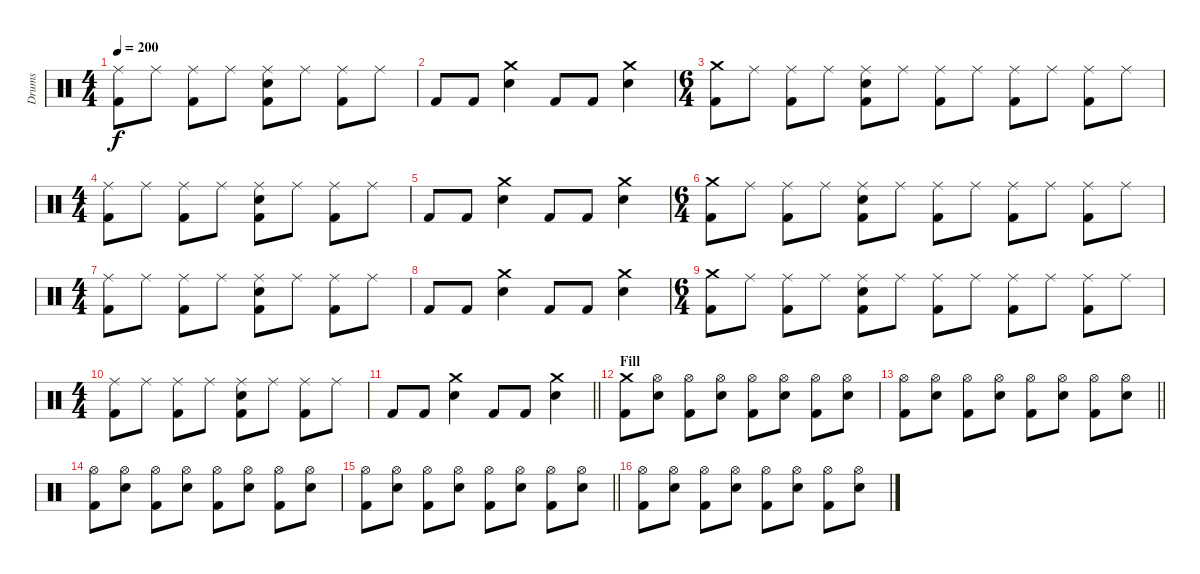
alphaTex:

\track ("Drums" "Drums") {instrument percussion}
\staff {score}
\articulation defaults
\ts (4 4)
\tempo 200
\clef neutral
\ks c
("Ride (middle)" "Kick (hit) 2").8{dy f} "Ride (middle)".8 ("Ride (middle)" "Kick (hit) 2").8 "Ride (middle)".8 ("Ride (middle)" "Electric Snare (hit)" "Kick (hit) 2").8 "Ride (middle)".8 ("Ride (middle)" "Kick (hit) 2").8 "Ride (middle)".8 |
"Kick (hit) 2".8 "Kick (hit) 2".8 ("Crash medium (hit)" "Electric Snare (hit)").4 "Kick (hit) 2".8 "Kick (hit) 2".8 ("Crash medium (hit)" "Electric Snare (hit)").4 |
\ts (6 4)
("Crash medium (hit)" "Kick (hit) 2").8 "Ride (middle)".8 ("Ride (middle)" "Kick (hit) 2").8 "Ride (middle)".8 ("Ride (middle)" "Electric Snare (hit)" "Kick (hit) 2").8 "Ride (middle)".8 ("Ride (middle)" "Kick (hit) 2").8 "Ride (middle)".8 ("Ride (middle)" "Kick (hit) 2").8 "Ride (middle)".8 ("Ride (middle)" "Kick (hit) 2").8 "Ride (middle)".8 |
\ts (4 4)
("Ride (middle)" "Kick (hit) 2").8 "Ride (middle)".8 ("Ride (middle)" "Kick (hit) 2").8 "Ride (middle)".8 ("Ride (middle)" "Electric Snare (hit)" "Kick (hit) 2").8 "Ride (middle)".8 ("Ride (middle)" "Kick (hit) 2").8 "Ride (middle)".8 |
"Kick (hit) 2".8 "Kick (hit) 2".8 ("Crash medium (hit)" "Electric Snare (hit)").4 "Kick (hit) 2".8 "Kick (hit) 2".8 ("Crash medium (hit)" "Electric Snare (hit)").4 |
\ts (6 4)
("Crash medium (hit)" "Kick (hit) 2").8 "Ride (middle)".8 ("Ride (middle)" "Kick (hit) 2").8 "Ride (middle)".8 ("Ride (middle)" "Electric Snare (hit)" "Kick (hit) 2").8 "Ride (middle)".8 ("Ride (middle)" "Kick (hit) 2").8 "Ride (middle)".8 ("Ride (middle)" "Kick (hit) 2").8 "Ride (middle)".8 ("Ride (middle)" "Kick (hit) 2").8 "Ride (middle)".8 |
\ts (4 4)
("Ride (middle)" "Kick (hit) 2").8 "Ride (middle)".8 ("Ride (middle)" "Kick (hit) 2").8 "Ride (middle)".8 ("Ride (middle)" "Electric Snare (hit)" "Kick (hit) 2").8 "Ride (middle)".8 ("Ride (middle)" "Kick (hit) 2").8 "Ride (middle)".8 |
"Kick (hit) 2".8 "Kick (hit) 2".8 ("Crash medium (hit)" "Electric Snare (hit)").4 "Kick (hit) 2".8 "Kick (hit) 2".8 ("Crash medium (hit)" "Electric Snare (hit)").4 |
\ts (6 4)
("Crash medium (hit)" "Kick (hit) 2").8 "Ride (middle)".8 ("Ride (middle)" "Kick (hit) 2").8 "Ride (middle)".8 ("Ride (middle)" "Electric Snare (hit)" "Kick (hit) 2").8 "Ride (middle)".8 ("Ride (middle)" "Kick (hit) 2").8 "Ride (middle)".8 ("Ride (middle)" "Kick (hit) 2").8 "Ride (middle)".8 ("Ride (middle)" "Kick (hit) 2").8 "Ride (middle)".8 |
\ts (4 4)
("Ride (middle)" "Kick (hit) 2").8 "Ride (middle)".8 ("Ride (middle)" "Kick (hit) 2").8 "Ride (middle)".8 ("Ride (middle)" "Electric Snare (hit)" "Kick (hit) 2").8 "Ride (middle)".8 ("Ride (middle)" "Kick (hit) 2").8 "Ride (middle)".8 |
\barLineRight lightlight "Kick (hit) 2".8 "Kick (hit) 2".8
("Crash medium (hit)" "Electric Snare (hit)").4 "Kick (hit) 2".8 "Kick (hit) 2".8 ("Crash medium (hit)" "Electric Snare (hit)").4 |
\section ("" "Fill")
("Crash medium (hit)" "Kick (hit) 2").8 ("Hi-Hat (open)" "Electric Snare (hit)").8 ("Hi-Hat (open)" "Kick (hit) 2").8 ("Hi-Hat (open)" "Electric Snare (hit)").8 ("Hi-Hat (open)" "Kick (hit) 2").8 ("Hi-Hat (open)" "Electric Snare (hit)").8 ("Hi-Hat (open)" "Kick (hit) 2").8 ("Hi-Hat (open)" "Electric Snare (hit)").8 |
\barLineRight lightlight
("Hi-Hat (open)" "Kick (hit) 2").8 ("Hi-Hat (open)" "Electric Snare (hit)").8 ("Hi-Hat (open)" "Kick (hit) 2").8 ("Hi-Hat (open)" "Electric Snare (hit)").8 ("Hi-Hat (open)" "Kick (hit) 2").8 ("Hi-Hat (open)" "Electric Snare (hit)").8 ("Hi-Hat (open)" "Kick (hit) 2").8 ("Hi-Hat (open)" "Electric Snare (hit)").8 |
("Hi-Hat (open)" "Kick (hit) 2").8 ("Hi-Hat (open)" "Electric Snare (hit)").8 ("Hi-Hat (open)" "Kick (hit) 2").8 ("Hi-Hat (open)" "Electric Snare (hit)").8 ("Hi-Hat (open)" "Kick (hit) 2").8 ("Hi-Hat (open)" "Electric Snare (hit)").8 ("Hi-Hat (open)" "Kick (hit) 2").8 ("Hi-Hat (open)" "Electric Snare (hit)").8 |
\barLineRight lightlight
("Hi-Hat (open)" "Kick (hit) 2").8 ("Hi-Hat (open)" "Electric Snare (hit)").8 ("Hi-Hat (open)" "Kick (hit) 2").8 ("Hi-Hat (open)" "Electric Snare (hit)").8 ("Hi-Hat (open)" "Kick (hit) 2").8 ("Hi-Hat (open)" "Electric Snare (hit)").8 ("Hi-Hat (open)" "Kick (hit) 2").8 ("Hi-Hat (open)" "Electric Snare (hit)").8 |
("Hi-Hat (open)" "Kick (hit) 2").8 ("Hi-Hat (open)" "Electric Snare (hit)").8 ("Hi-Hat (open)" "Kick (hit) 2").8 ("Hi-Hat (open)" "Electric Snare (hit)").8 ("Hi-Hat (open)" "Kick (hit) 2").8 ("Hi-Hat (open)" "Electric Snare (hit)").8 ("Hi-Hat (open)" "Kick (hit) 2").8 ("Hi-Hat (open)" "Electric Snare (hit)").8
